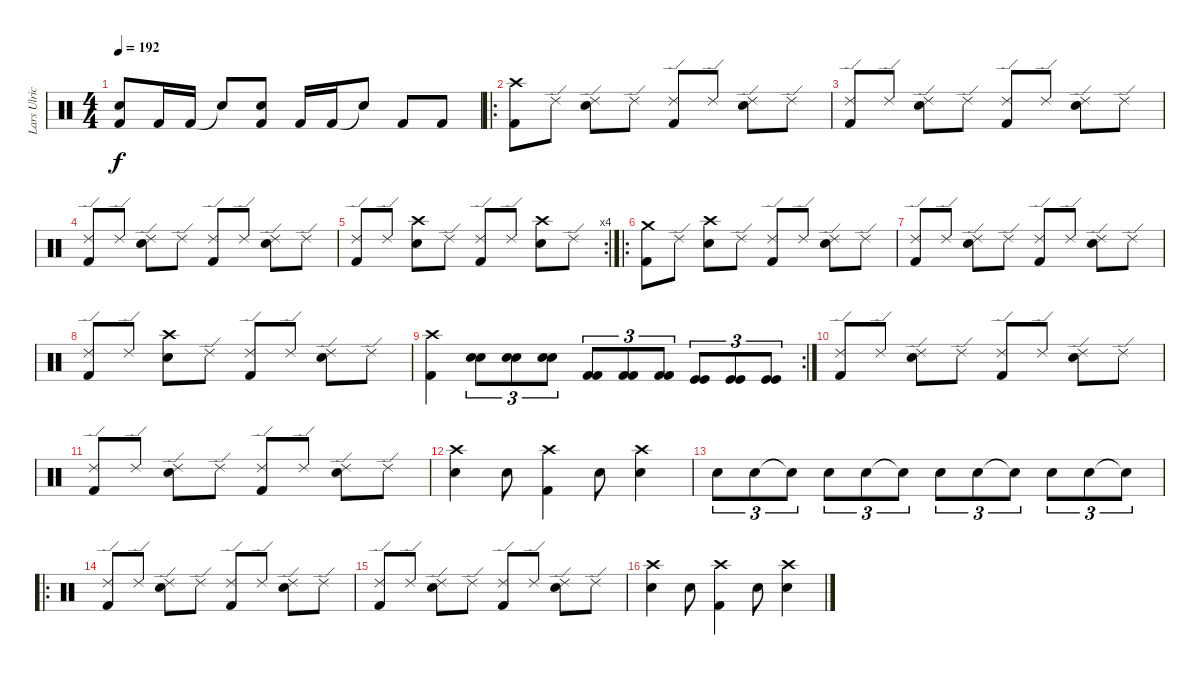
\track ("Lars Ulrich" "Lars Ulric") {instrument percussion}
\staff {score}
\articulation defaults
\ts (4 4)
\tempo 192
\clef neutral
\ks c
("Snare (hit) 2" "Kick (hit) 2").8{dy f} "Kick (hit) 2".16 "Kick (hit) 2".16 "Snare (hit)"{t}.8 ("Snare (hit) 2" "Kick (hit) 2").8 "Kick (hit) 2".16 "Kick (hit) 2".16 "Snare (hit)"{t}.8 "Kick (hit) 2".8 "Kick (hit) 2".8 |
\ro
("Crash high (hit)" "Kick (hit) 2").8 "Ride (edge) 2".8 ("Ride (edge) 2" "Snare (hit) 2").8 "Ride (edge) 2".8 ("Ride (edge) 2" "Kick (hit) 2").8 "Ride (edge) 2".8 ("Ride (edge) 2" "Snare (hit) 2").8 "Ride (edge) 2".8 |
("Ride (edge) 2" "Kick (hit) 2").8 "Ride (edge) 2".8 ("Ride (edge) 2" "Snare (hit) 2").8 "Ride (edge) 2".8 ("Ride (edge) 2" "Kick (hit) 2").8 "Ride (edge) 2".8 ("Ride (edge) 2" "Snare (hit) 2").8 "Ride (edge) 2".8 |
("Ride (edge) 2" "Kick (hit) 2").8 "Ride (edge) 2".8 ("Ride (edge) 2" "Snare (hit) 2").8 "Ride (edge) 2".8 ("Ride (edge) 2" "Kick (hit) 2").8 "Ride (edge) 2".8 ("Ride (edge) 2" "Snare (hit) 2").8 "Ride (edge) 2".8 |
\rc 4
("Ride (edge) 2" "Kick (hit) 2").8 "Ride (edge) 2".8 ("Crash high (hit)" "Snare (hit) 2").8 "Ride (edge) 2".8 ("Ride (edge) 2" "Kick (hit) 2").8 "Ride (edge) 2".8 ("Crash high (hit)" "Snare (hit) 2").8 "Ride (edge) 2".8 |
\ro
("Crash medium (hit)" "Kick (hit) 2").8 "Ride (edge) 2".8 ("Crash high (hit)" "Snare (hit) 2").8 "Ride (edge) 2".8 ("Ride (edge) 2" "Kick (hit) 2").8 "Ride (edge) 2".8 ("Ride (edge) 2" "Snare (hit) 2").8 "Ride (edge) 2".8 |
("Ride (edge) 2" "Kick (hit) 2").8 "Ride (edge) 2".8 ("Ride (edge) 2" "Snare (hit) 2").8 "Ride (edge) 2".8 ("Ride (edge) 2" "Kick (hit) 2").8 "Ride (edge) 2".8 ("Ride (edge) 2" "Snare (hit) 2").8 "Ride (edge) 2".8 |
("Ride (edge) 2" "Kick (hit) 2").8 "Ride (edge) 2".8 ("Crash high (hit)" "Snare (hit) 2").8 "Ride (edge) 2".8 ("Ride (edge) 2" "Kick (hit) 2").8 "Ride (edge) 2".8 ("Ride (edge) 2" "Snare (hit) 2").8 "Ride (edge) 2".8 |
\rc 2
("Crash high (hit)" "Kick (hit) 2").4 ("Snare (hit) 2" "Snare (hit) 2").8{tu (3 2)} ("Snare (hit) 2" "Snare (hit) 2").8{tu (3 2)} ("Snare (hit) 2" "Snare (hit) 2").8{tu (3 2)} ("Kick (hit) 2" "Kick (hit) 2").8{tu (3 2)} ("Kick (hit) 2" "Kick (hit) 2").8{tu (3 2)} ("Kick (hit) 2" "Kick (hit) 2").8{tu (3 2)} ("Kick (hit)" "Kick (hit)").8{tu (3 2)} ("Kick (hit)" "Kick (hit)").8{tu (3 2)} ("Kick (hit)" "Kick (hit)").8{tu (3 2)} |
("Ride (edge) 2" "Kick (hit) 2").8 "Ride (edge) 2".8 ("Ride (edge) 2" "Snare (hit) 2").8 "Ride (edge) 2".8 ("Ride (edge) 2" "Kick (hit) 2").8 "Ride (edge) 2".8 ("Ride (edge) 2" "Snare (hit) 2").8 "Ride (edge) 2".8 |
("Ride (edge) 2" "Kick (hit) 2").8 "Ride (edge) 2".8 ("Ride (edge) 2" "Snare (hit) 2").8 "Ride (edge) 2".8 ("Ride (edge) 2" "Kick (hit) 2").8 "Ride (edge) 2".8 ("Ride (edge) 2" "Snare (hit) 2").8 "Ride (edge) 2".8 |
("Crash high (hit)" "Snare (hit) 2").4 "Snare (hit) 2".8 ("Crash high (hit)" "Kick (hit) 2").4 "Snare (hit) 2".8 ("Crash high (hit)" "Snare (hit) 2").4 |
"Snare (hit) 2".8{tu (3 2)} "Snare (hit) 2".8{tu (3 2)} "Snare (hit)"{t}.8{tu (3 2)} "Snare (hit) 2".8{tu (3 2)} "Snare (hit) 2".8{tu (3 2)} "Snare (hit)"{t}.8{tu (3 2)} "Snare (hit) 2".8{tu (3 2)} "Snare (hit) 2".8{tu (3 2)} "Snare (hit)"{t}.8{tu (3 2)} "Snare (hit) 2".8{tu (3 2)} "Snare (hit) 2".8{tu (3 2)} "Snare (hit)"{t}.8{tu (3 2)} |
\ro
("Ride (edge) 2" "Kick (hit) 2").8 "Ride (edge) 2".8 ("Ride (edge) 2" "Snare (hit) 2").8 "Ride (edge) 2".8 ("Ride (edge) 2" "Kick (hit) 2").8 "Ride (edge) 2".8 ("Ride (edge) 2" "Snare (hit) 2").8 "Ride (edge) 2".8 |
("Ride (edge) 2" "Kick (hit) 2").8 "Ride (edge) 2".8 ("Ride (edge) 2" "Snare (hit) 2").8 "Ride (edge) 2".8 ("Ride (edge) 2" "Kick (hit) 2").8 "Ride (edge) 2".8 ("Ride (edge) 2" "Snare (hit) 2").8 "Ride (edge) 2".8 |
("Crash high (hit)" "Snare (hit) 2").4 "Snare (hit) 2".8 ("Crash high (hit)" "Kick (hit) 2").4 "Snare (hit) 2".8 ("Crash high (hit)" "Snare (hit) 2").4
